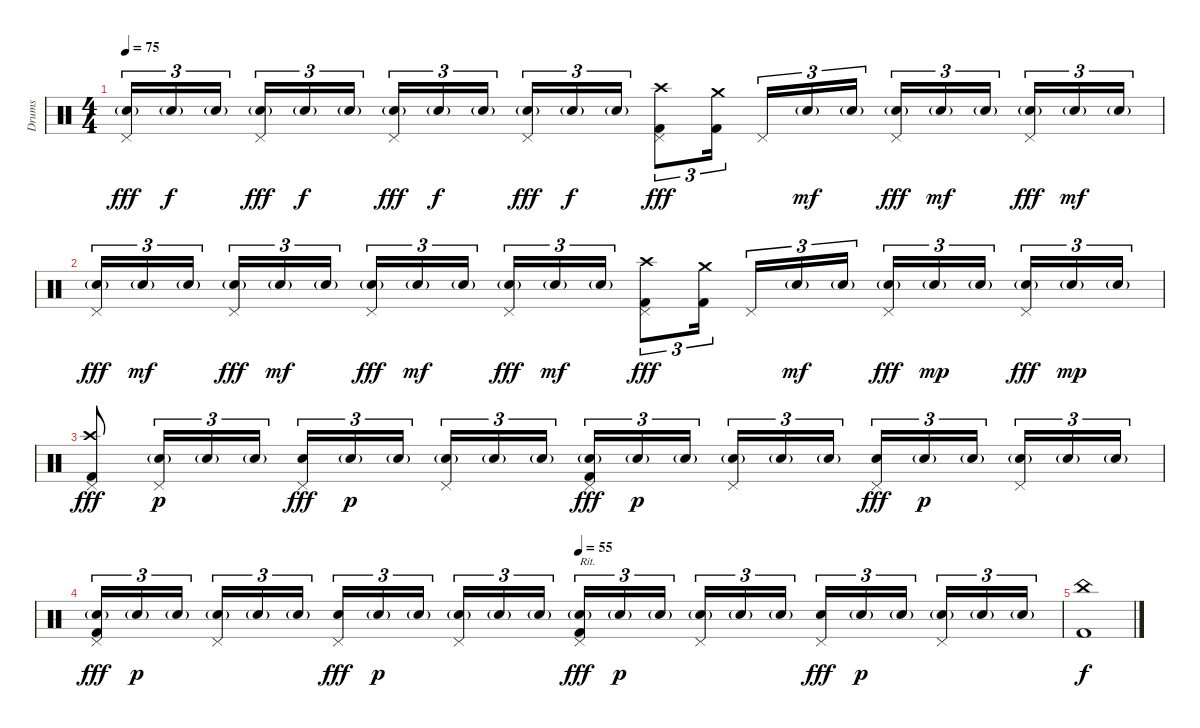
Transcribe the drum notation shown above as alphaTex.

\track ("Drums" "Drums") {instrument percussion}
\staff {score}
\articulation defaults
\ts (4 4)
\tempo 75
\clef neutral
\ks c
("Snare (hit) 2"{g} "Pedal Hi-Hat (hit)").16{tu (3 2) dy fff} "Snare (hit) 2"{g}.16{tu (3 2) dy f} "Snare (hit) 2"{g}.16{tu (3 2)} ("Snare (hit) 2"{g} "Pedal Hi-Hat (hit)").16{tu (3 2) dy fff} "Snare (hit) 2"{g}.16{tu (3 2) dy f} "Snare (hit) 2"{g}.16{tu (3 2)} ("Snare (hit) 2"{g} "Pedal Hi-Hat (hit)").16{tu (3 2) dy fff} "Snare (hit) 2"{g}.16{tu (3 2) dy f} "Snare (hit) 2"{g}.16{tu (3 2)} ("Snare (hit) 2"{g} "Pedal Hi-Hat (hit)").16{tu (3 2) dy fff} "Snare (hit) 2"{g}.16{tu (3 2) dy f} "Snare (hit) 2"{g}.16{tu (3 2)} ("Crash high (hit)" "Kick (hit) 2" "Pedal Hi-Hat (hit)").8{tu (3 2) dy fff} ("Crash medium (hit)" "Kick (hit) 2").16{tu (3 2)} "Pedal Hi-Hat (hit)".16{tu (3 2)} "Snare (hit) 2"{g}.16{tu (3 2) dy mf} "Snare (hit) 2"{g}.16{tu (3 2)} ("Snare (hit) 2"{g} "Pedal Hi-Hat (hit)").16{tu (3 2) dy fff} "Snare (hit) 2"{g}.16{tu (3 2) dy mf} "Snare (hit) 2"{g}.16{tu (3 2)} ("Snare (hit) 2"{g} "Pedal Hi-Hat (hit)").16{tu (3 2) dy fff} "Snare (hit) 2"{g}.16{tu (3 2) dy mf} "Snare (hit) 2"{g}.16{tu (3 2)} |
("Snare (hit) 2"{g} "Pedal Hi-Hat (hit)").16{tu (3 2) dy fff} "Snare (hit) 2"{g}.16{tu (3 2) dy mf} "Snare (hit) 2"{g}.16{tu (3 2)} ("Snare (hit) 2"{g} "Pedal Hi-Hat (hit)").16{tu (3 2) dy fff} "Snare (hit) 2"{g}.16{tu (3 2) dy mf} "Snare (hit) 2"{g}.16{tu (3 2)} ("Snare (hit) 2"{g} "Pedal Hi-Hat (hit)").16{tu (3 2) dy fff} "Snare (hit) 2"{g}.16{tu (3 2) dy mf} "Snare (hit) 2"{g}.16{tu (3 2)} ("Snare (hit) 2"{g} "Pedal Hi-Hat (hit)").16{tu (3 2) dy fff} "Snare (hit) 2"{g}.16{tu (3 2) dy mf} "Snare (hit) 2"{g}.16{tu (3 2)} ("Crash high (hit)" "Kick (hit) 2" "Pedal Hi-Hat (hit)").8{tu (3 2) dy fff} ("Crash medium (hit)" "Kick (hit) 2").16{tu (3 2)} "Pedal Hi-Hat (hit)".16{tu (3 2)} "Snare (hit) 2"{g}.16{tu (3 2) dy mf} "Snare (hit) 2"{g}.16{tu (3 2)} ("Snare (hit) 2"{g} "Pedal Hi-Hat (hit)").16{tu (3 2) dy fff} "Snare (hit) 2"{g}.16{tu (3 2) dy mp} "Snare (hit) 2"{g}.16{tu (3 2)} ("Snare (hit) 2"{g} "Pedal Hi-Hat (hit)").16{tu (3 2) dy fff} "Snare (hit) 2"{g}.16{tu (3 2) dy mp} "Snare (hit) 2"{g}.16{tu (3 2)} |
("Crash high (hit)" "Kick (hit) 2" "Pedal Hi-Hat (hit)").8{dy fff} ("Snare (hit) 2"{g} "Pedal Hi-Hat (hit)").16{tu (3 2) dy p} "Snare (hit) 2"{g}.16{tu (3 2)} "Snare (hit) 2"{g}.16{tu (3 2)} ("Electric Snare (hit)" "Pedal Hi-Hat (hit)").16{tu (3 2) dy fff} "Snare (hit) 2"{g}.16{tu (3 2) dy p} "Snare (hit) 2"{g}.16{tu (3 2)} ("Snare (hit) 2"{g} "Pedal Hi-Hat (hit)").16{tu (3 2)} "Snare (hit) 2"{g}.16{tu (3 2)} "Snare (hit) 2"{g}.16{tu (3 2)} ("Snare (hit) 2"{g} "Kick (hit) 2" "Pedal Hi-Hat (hit)").16{tu (3 2) dy fff} "Snare (hit) 2"{g}.16{tu (3 2) dy p} "Snare (hit) 2"{g}.16{tu (3 2)} ("Snare (hit) 2"{g} "Pedal Hi-Hat (hit)").16{tu (3 2)} "Snare (hit) 2"{g}.16{tu (3 2)} "Snare (hit) 2"{g}.16{tu (3 2)} ("Electric Snare (hit)" "Pedal Hi-Hat (hit)").16{tu (3 2) dy fff} "Snare (hit) 2"{g}.16{tu (3 2) dy p} "Snare (hit) 2"{g}.16{tu (3 2)} ("Snare (hit) 2"{g} "Pedal Hi-Hat (hit)").16{tu (3 2)} "Snare (hit) 2"{g}.16{tu (3 2)} "Snare (hit) 2"{g}.16{tu (3 2)} |
\tempo (55 0.5)
("Snare (hit) 2"{g} "Kick (hit) 2" "Pedal Hi-Hat (hit)").16{tu (3 2) dy fff} "Snare (hit) 2"{g}.16{tu (3 2) dy p} "Snare (hit) 2"{g}.16{tu (3 2)} ("Snare (hit) 2"{g} "Pedal Hi-Hat (hit)").16{tu (3 2)} "Snare (hit) 2"{g}.16{tu (3 2)} "Snare (hit) 2"{g}.16{tu (3 2)} ("Electric Snare (hit)" "Pedal Hi-Hat (hit)").16{tu (3 2) dy fff} "Snare (hit) 2"{g}.16{tu (3 2) dy p} "Snare (hit) 2"{g}.16{tu (3 2)} ("Snare (hit) 2"{g} "Pedal Hi-Hat (hit)").16{tu (3 2)} "Snare (hit) 2"{g}.16{tu (3 2)} "Snare (hit) 2"{g}.16{tu (3 2)} ("Snare (hit) 2"{g} "Kick (hit) 2" "Pedal Hi-Hat (hit)").16{tu (3 2) txt "Rit." dy fff} "Snare (hit) 2"{g}.16{tu (3 2) dy p} "Snare (hit) 2"{g}.16{tu (3 2)} ("Snare (hit) 2"{g} "Pedal Hi-Hat (hit)").16{tu (3 2)} "Snare (hit) 2"{g}.16{tu (3 2)} "Snare (hit) 2"{g}.16{tu (3 2)} ("Electric Snare (hit)" "Pedal Hi-Hat (hit)").16{tu (3 2) dy fff} "Snare (hit) 2"{g}.16{tu (3 2) dy p} "Snare (hit) 2"{g}.16{tu (3 2)} ("Snare (hit) 2"{g} "Pedal Hi-Hat (hit)").16{tu (3 2)} "Snare (hit) 2"{g}.16{tu (3 2)} "Snare (hit) 2"{g}.16{tu (3 2)} |
("China (hit)" "Kick (hit) 2").1{dy f}
